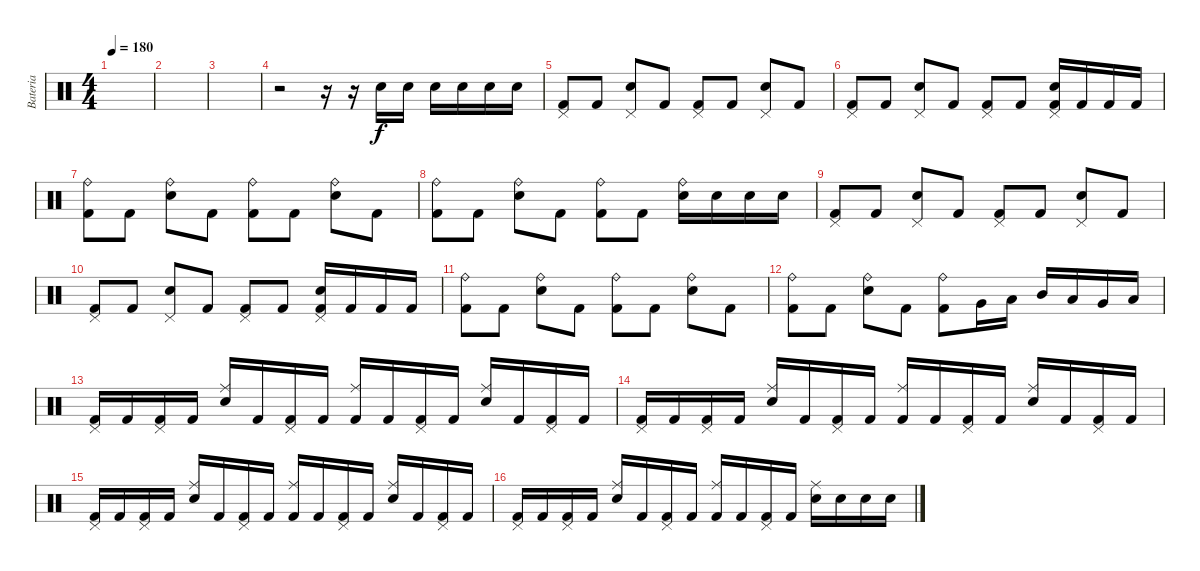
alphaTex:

\track ("Bateria" "Bateria") {instrument percussion}
\staff {score}
\articulation defaults
\ts (4 4)
\tempo 180
\clef neutral
\ks c
|
|
|
r.2 r.16 r.16 "Electric Snare (hit)".16 "Electric Snare (hit)".16 "Electric Snare (hit)".16 "Electric Snare (hit)".16 "Electric Snare (hit)".16 "Electric Snare (hit)".16 |
("Kick (hit) 2" "Pedal Hi-Hat (hit)").8 "Kick (hit) 2".8 ("Electric Snare (hit)" "Pedal Hi-Hat (hit)").8 "Kick (hit) 2".8 ("Kick (hit) 2" "Pedal Hi-Hat (hit)").8 "Kick (hit) 2".8 ("Electric Snare (hit)" "Pedal Hi-Hat (hit)").8 "Kick (hit) 2".8 |
("Kick (hit) 2" "Pedal Hi-Hat (hit)").8 "Kick (hit) 2".8 ("Electric Snare (hit)" "Pedal Hi-Hat (hit)").8 "Kick (hit) 2".8 ("Kick (hit) 2" "Pedal Hi-Hat (hit)").8 "Kick (hit) 2".8 ("Kick (hit) 2" "Electric Snare (hit)" "Pedal Hi-Hat (hit)").16 "Kick (hit) 2".16 "Kick (hit) 2".16 "Kick (hit) 2".16 |
("Kick (hit) 2" "Ride (bell)").8 "Kick (hit) 2".8 ("Electric Snare (hit)" "Ride (bell)").8 "Kick (hit) 2".8 ("Kick (hit) 2" "Ride (bell)").8 "Kick (hit) 2".8 ("Electric Snare (hit)" "Ride (bell)").8 "Kick (hit) 2".8 |
("Kick (hit) 2" "Ride (bell)").8 "Kick (hit) 2".8 ("Electric Snare (hit)" "Ride (bell)").8 "Kick (hit) 2".8 ("Kick (hit) 2" "Ride (bell)").8 "Kick (hit) 2".8 ("Electric Snare (hit)" "Ride (bell)").16 "Electric Snare (hit)".16 "Electric Snare (hit)".16 "Electric Snare (hit)".16 |
("Kick (hit) 2" "Pedal Hi-Hat (hit)").8 "Kick (hit) 2".8 ("Electric Snare (hit)" "Pedal Hi-Hat (hit)").8 "Kick (hit) 2".8 ("Kick (hit) 2" "Pedal Hi-Hat (hit)").8 "Kick (hit) 2".8 ("Electric Snare (hit)" "Pedal Hi-Hat (hit)").8 "Kick (hit) 2".8 |
("Kick (hit) 2" "Pedal Hi-Hat (hit)").8 "Kick (hit) 2".8 ("Electric Snare (hit)" "Pedal Hi-Hat (hit)").8 "Kick (hit) 2".8 ("Kick (hit) 2" "Pedal Hi-Hat (hit)").8 "Kick (hit) 2".8 ("Kick (hit) 2" "Electric Snare (hit)" "Pedal Hi-Hat (hit)").16 "Kick (hit) 2".16 "Kick (hit) 2".16 "Kick (hit) 2".16 |
("Kick (hit) 2" "Ride (bell)").8 "Kick (hit) 2".8 ("Electric Snare (hit)" "Ride (bell)").8 "Kick (hit) 2".8 ("Kick (hit) 2" "Ride (bell)").8 "Kick (hit) 2".8 ("Electric Snare (hit)" "Ride (bell)").8 "Kick (hit) 2".8 |
("Kick (hit) 2" "Ride (bell)").8 "Kick (hit) 2".8 ("Electric Snare (hit)" "Ride (bell)").8 "Kick (hit) 2".8 ("Kick (hit) 2" "Ride (bell)").8 "Very Low Tom (hit)".16 "Low Floor Tom (hit)".16 "Mid Tom (hit)".16 "Low Tom (hit)".16 "Very Low Tom (hit)".16 "Low Floor Tom (hit)".16 |
("Kick (hit) 2" "Pedal Hi-Hat (hit)").16 "Kick (hit) 2".16 ("Kick (hit) 2" "Pedal Hi-Hat (hit)").16 "Kick (hit) 2".16 ("Electric Snare (hit)" "Ride (middle)").16 "Kick (hit) 2".16 ("Kick (hit) 2" "Pedal Hi-Hat (hit)").16 "Kick (hit) 2".16 ("Kick (hit) 2" "Ride (middle)").16 "Kick (hit) 2".16 ("Kick (hit) 2" "Pedal Hi-Hat (hit)").16 "Kick (hit) 2".16 ("Electric Snare (hit)" "Ride (middle)").16 "Kick (hit) 2".16 ("Kick (hit) 2" "Pedal Hi-Hat (hit)").16 "Kick (hit) 2".16 |
("Kick (hit) 2" "Pedal Hi-Hat (hit)").16 "Kick (hit) 2".16 ("Kick (hit) 2" "Pedal Hi-Hat (hit)").16 "Kick (hit) 2".16 ("Electric Snare (hit)" "Ride (middle)").16 "Kick (hit) 2".16 ("Kick (hit) 2" "Pedal Hi-Hat (hit)").16 "Kick (hit) 2".16 ("Kick (hit) 2" "Ride (middle)").16 "Kick (hit) 2".16 ("Kick (hit) 2" "Pedal Hi-Hat (hit)").16 "Kick (hit) 2".16 ("Electric Snare (hit)" "Ride (middle)").16 "Kick (hit) 2".16 ("Kick (hit) 2" "Pedal Hi-Hat (hit)").16 "Kick (hit) 2".16 |
("Kick (hit) 2" "Pedal Hi-Hat (hit)").16 "Kick (hit) 2".16 ("Kick (hit) 2" "Pedal Hi-Hat (hit)").16 "Kick (hit) 2".16 ("Electric Snare (hit)" "Ride (middle)").16 "Kick (hit) 2".16 ("Kick (hit) 2" "Pedal Hi-Hat (hit)").16 "Kick (hit) 2".16 ("Kick (hit) 2" "Ride (middle)").16 "Kick (hit) 2".16 ("Kick (hit) 2" "Pedal Hi-Hat (hit)").16 "Kick (hit) 2".16 ("Electric Snare (hit)" "Ride (middle)").16 "Kick (hit) 2".16 ("Kick (hit) 2" "Pedal Hi-Hat (hit)").16 "Kick (hit) 2".16 |
("Kick (hit) 2" "Pedal Hi-Hat (hit)").16 "Kick (hit) 2".16 ("Kick (hit) 2" "Pedal Hi-Hat (hit)").16 "Kick (hit) 2".16 ("Electric Snare (hit)" "Ride (middle)").16 "Kick (hit) 2".16 ("Kick (hit) 2" "Pedal Hi-Hat (hit)").16 "Kick (hit) 2".16 ("Kick (hit) 2" "Ride (middle)").16 "Kick (hit) 2".16 ("Kick (hit) 2" "Pedal Hi-Hat (hit)").16 "Kick (hit) 2".16 ("Electric Snare (hit)" "Ride (middle)").16 "Electric Snare (hit)".16 "Electric Snare (hit)".16 "Electric Snare (hit)".16
